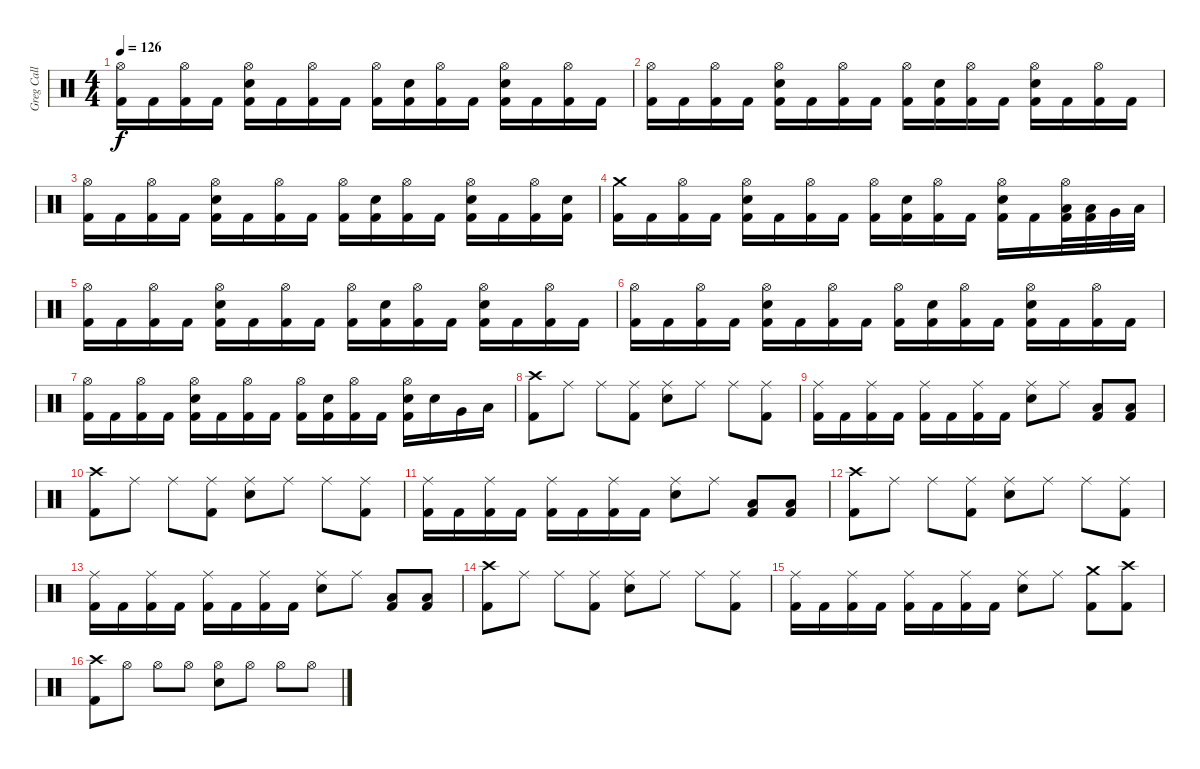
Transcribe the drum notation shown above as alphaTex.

\track ("Greg Call (Drums)" "Greg Call ") {instrument percussion}
\staff {score}
\articulation defaults
\ts (4 4)
\tempo 126
\clef neutral
\ks c
("Hi-Hat (open)" "Kick (hit) 2").16{dy f} "Kick (hit) 2".16 ("Hi-Hat (open)" "Kick (hit) 2").16 "Kick (hit) 2".16 ("Hi-Hat (open)" "Snare (hit) 2" "Kick (hit) 2").16 "Kick (hit) 2".16 ("Hi-Hat (open)" "Kick (hit) 2").16 "Kick (hit) 2".16 ("Hi-Hat (open)" "Kick (hit) 2").16 ("Snare (hit) 2" "Kick (hit) 2").16 ("Hi-Hat (open)" "Kick (hit) 2").16 "Kick (hit) 2".16 ("Hi-Hat (open)" "Snare (hit) 2" "Kick (hit) 2").16 "Kick (hit) 2".16 ("Hi-Hat (open)" "Kick (hit) 2").16 "Kick (hit) 2".16 |
("Hi-Hat (open)" "Kick (hit) 2").16 "Kick (hit) 2".16 ("Hi-Hat (open)" "Kick (hit) 2").16 "Kick (hit) 2".16 ("Hi-Hat (open)" "Snare (hit) 2" "Kick (hit) 2").16 "Kick (hit) 2".16 ("Hi-Hat (open)" "Kick (hit) 2").16 "Kick (hit) 2".16 ("Hi-Hat (open)" "Kick (hit) 2").16 ("Snare (hit) 2" "Kick (hit) 2").16 ("Hi-Hat (open)" "Kick (hit) 2").16 "Kick (hit) 2".16 ("Hi-Hat (open)" "Snare (hit) 2" "Kick (hit) 2").16 "Kick (hit) 2".16 ("Hi-Hat (open)" "Kick (hit) 2").16 "Kick (hit) 2".16 |
("Hi-Hat (open)" "Kick (hit) 2").16 "Kick (hit) 2".16 ("Hi-Hat (open)" "Kick (hit) 2").16 "Kick (hit) 2".16 ("Hi-Hat (open)" "Snare (hit) 2" "Kick (hit) 2").16 "Kick (hit) 2".16 ("Hi-Hat (open)" "Kick (hit) 2").16 "Kick (hit) 2".16 ("Hi-Hat (open)" "Kick (hit) 2").16 ("Snare (hit) 2" "Kick (hit) 2").16 ("Hi-Hat (open)" "Kick (hit) 2").16 "Kick (hit) 2".16 ("Hi-Hat (open)" "Snare (hit) 2" "Kick (hit) 2").16 "Kick (hit) 2".16 ("Hi-Hat (open)" "Kick (hit) 2").16 ("Snare (hit) 2" "Kick (hit) 2").16 |
("Crash medium (hit)" "Kick (hit) 2").16 "Kick (hit) 2".16 ("Hi-Hat (open)" "Kick (hit) 2").16 "Kick (hit) 2".16 ("Hi-Hat (open)" "Snare (hit) 2" "Kick (hit) 2").16 "Kick (hit) 2".16 ("Hi-Hat (open)" "Kick (hit) 2").16 "Kick (hit) 2".16 ("Hi-Hat (open)" "Kick (hit) 2").16 ("Snare (hit) 2" "Kick (hit) 2").16 ("Hi-Hat (open)" "Kick (hit) 2").16 "Kick (hit) 2".16 ("Hi-Hat (open)" "Snare (hit) 2" "Kick (hit) 2").16 "Kick (hit) 2".16 ("Hi-Hat (open)" "Low Tom (hit)" "Kick (hit) 2").32 ("Low Tom (hit)" "Kick (hit) 2").32 "Very Low Tom (hit)".32 "Low Floor Tom (hit)".32 |
("Hi-Hat (open)" "Kick (hit) 2").16 "Kick (hit) 2".16 ("Hi-Hat (open)" "Kick (hit) 2").16 "Kick (hit) 2".16 ("Hi-Hat (open)" "Snare (hit) 2" "Kick (hit) 2").16 "Kick (hit) 2".16 ("Hi-Hat (open)" "Kick (hit) 2").16 "Kick (hit) 2".16 ("Hi-Hat (open)" "Kick (hit) 2").16 ("Snare (hit) 2" "Kick (hit) 2").16 ("Hi-Hat (open)" "Kick (hit) 2").16 "Kick (hit) 2".16 ("Hi-Hat (open)" "Snare (hit) 2" "Kick (hit) 2").16 "Kick (hit) 2".16 ("Hi-Hat (open)" "Kick (hit) 2").16 "Kick (hit) 2".16 |
("Hi-Hat (open)" "Kick (hit) 2").16 "Kick (hit) 2".16 ("Hi-Hat (open)" "Kick (hit) 2").16 "Kick (hit) 2".16 ("Hi-Hat (open)" "Snare (hit) 2" "Kick (hit) 2").16 "Kick (hit) 2".16 ("Hi-Hat (open)" "Kick (hit) 2").16 "Kick (hit) 2".16 ("Hi-Hat (open)" "Kick (hit) 2").16 ("Snare (hit) 2" "Kick (hit) 2").16 ("Hi-Hat (open)" "Kick (hit) 2").16 "Kick (hit) 2".16 ("Hi-Hat (open)" "Snare (hit) 2" "Kick (hit) 2").16 "Kick (hit) 2".16 ("Hi-Hat (open)" "Kick (hit) 2").16 "Kick (hit) 2".16 |
("Hi-Hat (open)" "Kick (hit) 2").16 "Kick (hit) 2".16 ("Hi-Hat (open)" "Kick (hit) 2").16 "Kick (hit) 2".16 ("Hi-Hat (open)" "Snare (hit) 2" "Kick (hit) 2").16 "Kick (hit) 2".16 ("Hi-Hat (open)" "Kick (hit) 2").16 "Kick (hit) 2".16 ("Hi-Hat (open)" "Kick (hit) 2").16 ("Snare (hit) 2" "Kick (hit) 2").16 ("Hi-Hat (open)" "Kick (hit) 2").16 "Kick (hit) 2".16 ("Hi-Hat (open)" "Snare (hit) 2" "Kick (hit) 2").16 "Snare (hit) 2".16 "Very Low Tom (hit)".16 "Low Floor Tom (hit)".16 |
("Crash high (hit)" "Kick (hit) 2").8 "Ride (middle)".8 "Ride (middle)".8 ("Ride (middle)" "Kick (hit) 2").8 ("Ride (middle)" "Snare (hit) 2").8 "Ride (middle)".8 "Ride (middle)".8 ("Ride (middle)" "Kick (hit) 2").8 |
("Ride (middle)" "Kick (hit) 2").16 "Kick (hit) 2".16 ("Ride (middle)" "Kick (hit) 2").16 "Kick (hit) 2".16 ("Ride (middle)" "Kick (hit) 2").16 "Kick (hit) 2".16 ("Ride (middle)" "Kick (hit) 2").16 "Kick (hit) 2".16 ("Ride (middle)" "Snare (hit) 2").8 "Ride (middle)".8 ("Low Floor Tom (hit)" "Kick (hit) 2").8 ("Low Floor Tom (hit)" "Kick (hit) 2").8 |
("Crash high (hit)" "Kick (hit) 2").8 "Ride (middle)".8 "Ride (middle)".8 ("Ride (middle)" "Kick (hit) 2").8 ("Ride (middle)" "Snare (hit) 2").8 "Ride (middle)".8 "Ride (middle)".8 ("Ride (middle)" "Kick (hit) 2").8 |
("Ride (middle)" "Kick (hit) 2").16 "Kick (hit) 2".16 ("Ride (middle)" "Kick (hit) 2").16 "Kick (hit) 2".16 ("Ride (middle)" "Kick (hit) 2").16 "Kick (hit) 2".16 ("Ride (middle)" "Kick (hit) 2").16 "Kick (hit) 2".16 ("Ride (middle)" "Snare (hit) 2").8 "Ride (middle)".8 ("Low Floor Tom (hit)" "Kick (hit) 2").8 ("Low Floor Tom (hit)" "Kick (hit) 2").8 |
("Crash high (hit)" "Kick (hit) 2").8 "Ride (middle)".8 "Ride (middle)".8 ("Ride (middle)" "Kick (hit) 2").8 ("Ride (middle)" "Snare (hit) 2").8 "Ride (middle)".8 "Ride (middle)".8 ("Ride (middle)" "Kick (hit) 2").8 |
("Ride (middle)" "Kick (hit) 2").16 "Kick (hit) 2".16 ("Ride (middle)" "Kick (hit) 2").16 "Kick (hit) 2".16 ("Ride (middle)" "Kick (hit) 2").16 "Kick (hit) 2".16 ("Ride (middle)" "Kick (hit) 2").16 "Kick (hit) 2".16 ("Ride (middle)" "Snare (hit) 2").8 "Ride (middle)".8 ("Low Floor Tom (hit)" "Kick (hit) 2").8 ("Low Floor Tom (hit)" "Kick (hit) 2").8 |
("Crash high (hit)" "Kick (hit) 2").8 "Ride (middle)".8 "Ride (middle)".8 ("Ride (middle)" "Kick (hit) 2").8 ("Ride (middle)" "Snare (hit) 2").8 "Ride (middle)".8 "Ride (middle)".8 ("Ride (middle)" "Kick (hit) 2").8 |
("Ride (middle)" "Kick (hit) 2").16 "Kick (hit) 2".16 ("Ride (middle)" "Kick (hit) 2").16 "Kick (hit) 2".16 ("Ride (middle)" "Kick (hit) 2").16 "Kick (hit) 2".16 ("Ride (middle)" "Kick (hit) 2").16 "Kick (hit) 2".16 ("Ride (middle)" "Snare (hit) 2").8 "Ride (middle)".8 ("Crash medium (hit)" "Kick (hit) 2").8 ("Crash high (hit)" "Kick (hit) 2").8 |
("Crash high (hit)" "Kick (hit) 2").8 "Hi-Hat (open)".8 "Hi-Hat (open)".8 "Hi-Hat (open)".8 ("Hi-Hat (open)" "Snare (hit) 2").8 "Hi-Hat (open)".8 "Hi-Hat (open)".8 "Hi-Hat (open)".8
